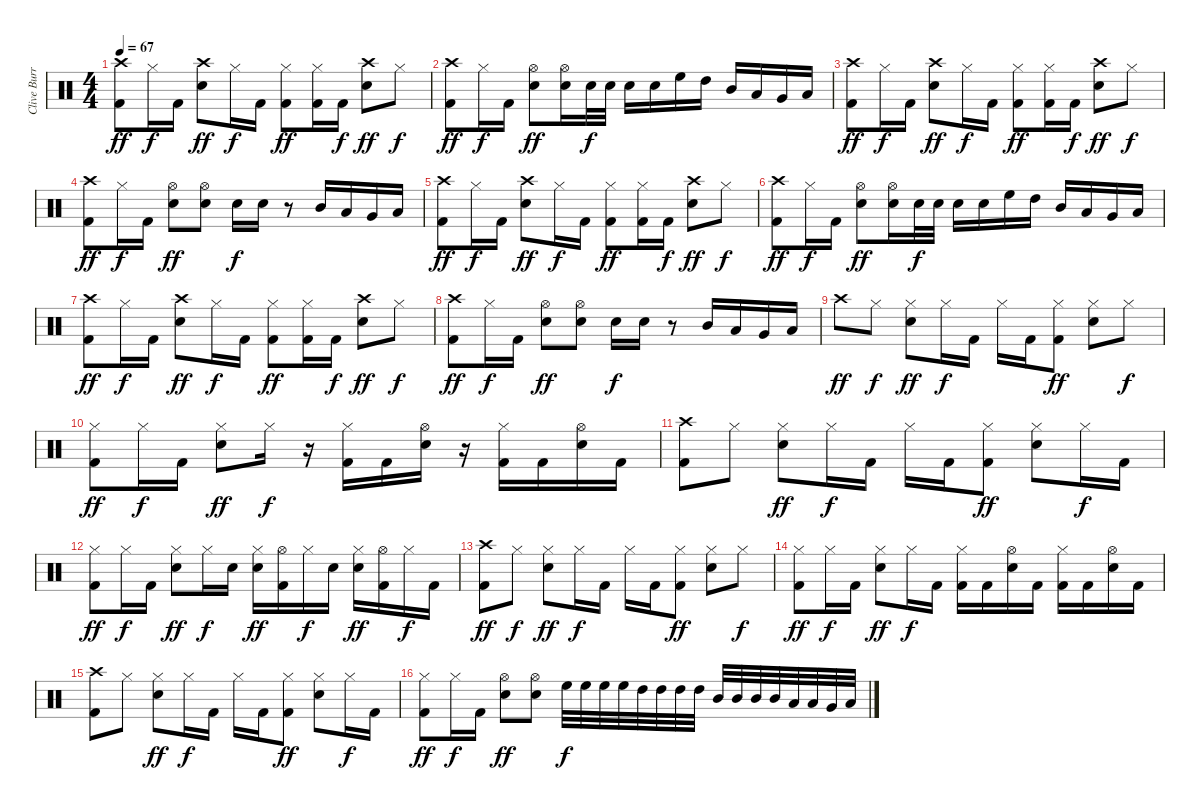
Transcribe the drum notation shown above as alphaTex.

\track ("Clive Burr - Drums" "Clive Burr") {instrument percussion}
\staff {score}
\articulation defaults
\ts (4 4)
\tempo 67
\clef neutral
\ks c
("Crash high (hit)" "Kick (hit) 2").8{dy ff} "Hi-Hat (closed)".16{dy f} "Kick (hit) 2".16 ("Crash high (hit)" "Snare (hit) 2").8{dy ff} "Hi-Hat (closed)".16{dy f} "Kick (hit) 2".16 ("Hi-Hat (closed)" "Kick (hit) 2").8{dy ff} ("Hi-Hat (closed)" "Kick (hit) 2").16 "Kick (hit) 2".16{dy f} ("Crash high (hit)" "Snare (hit) 2").8{dy ff} "Hi-Hat (closed)".8{dy f} |
("Crash high (hit)" "Kick (hit) 2").8{dy ff} "Hi-Hat (closed)".16{dy f} "Kick (hit) 2".16 ("Hi-Hat (open)" "Snare (hit) 2").8{dy ff} ("Hi-Hat (open)" "Snare (hit) 2").16 "Snare (hit) 2".32{dy f} "Snare (hit) 2".32 "Snare (hit) 2".16 "Snare (hit) 2".16 "High Floor Tom (hit)".16 "High Tom (hit)".16 "Mid Tom (hit)".16 "Low Tom (hit)".16 "Very Low Tom (hit)".16 "Low Floor Tom (hit)".16 |
("Crash high (hit)" "Kick (hit) 2").8{dy ff} "Hi-Hat (closed)".16{dy f} "Kick (hit) 2".16 ("Crash high (hit)" "Snare (hit) 2").8{dy ff} "Hi-Hat (closed)".16{dy f} "Kick (hit) 2".16 ("Hi-Hat (closed)" "Kick (hit) 2").8{dy ff} ("Hi-Hat (closed)" "Kick (hit) 2").16 "Kick (hit) 2".16{dy f} ("Crash high (hit)" "Snare (hit) 2").8{dy ff} "Hi-Hat (closed)".8{dy f} |
("Crash high (hit)" "Kick (hit) 2").8{dy ff} "Hi-Hat (closed)".16{dy f} "Kick (hit) 2".16 ("Hi-Hat (open)" "Snare (hit) 2").8{dy ff} ("Hi-Hat (open)" "Snare (hit) 2").8 "Snare (hit) 2".16{dy f} "Snare (hit) 2".16 r.8 "Mid Tom (hit)".16 "Low Tom (hit)".16 "Very Low Tom (hit)".16 "Low Floor Tom (hit)".16 |
("Crash high (hit)" "Kick (hit) 2").8{dy ff} "Hi-Hat (closed)".16{dy f} "Kick (hit) 2".16 ("Crash high (hit)" "Snare (hit) 2").8{dy ff} "Hi-Hat (closed)".16{dy f} "Kick (hit) 2".16 ("Hi-Hat (closed)" "Kick (hit) 2").8{dy ff} ("Hi-Hat (closed)" "Kick (hit) 2").16 "Kick (hit) 2".16{dy f} ("Crash high (hit)" "Snare (hit) 2").8{dy ff} "Hi-Hat (closed)".8{dy f} |
("Crash high (hit)" "Kick (hit) 2").8{dy ff} "Hi-Hat (closed)".16{dy f} "Kick (hit) 2".16 ("Hi-Hat (open)" "Snare (hit) 2").8{dy ff} ("Hi-Hat (open)" "Snare (hit) 2").16 "Snare (hit) 2".32{dy f} "Snare (hit) 2".32 "Snare (hit) 2".16 "Snare (hit) 2".16 "High Floor Tom (hit)".16 "High Tom (hit)".16 "Mid Tom (hit)".16 "Low Tom (hit)".16 "Very Low Tom (hit)".16 "Low Floor Tom (hit)".16 |
("Crash high (hit)" "Kick (hit) 2").8{dy ff} "Hi-Hat (closed)".16{dy f} "Kick (hit) 2".16 ("Crash high (hit)" "Snare (hit) 2").8{dy ff} "Hi-Hat (closed)".16{dy f} "Kick (hit) 2".16 ("Hi-Hat (closed)" "Kick (hit) 2").8{dy ff} ("Hi-Hat (closed)" "Kick (hit) 2").16 "Kick (hit) 2".16{dy f} ("Crash high (hit)" "Snare (hit) 2").8{dy ff} "Hi-Hat (closed)".8{dy f} |
("Crash high (hit)" "Kick (hit) 2").8{dy ff} "Hi-Hat (closed)".16{dy f} "Kick (hit) 2".16 ("Hi-Hat (open)" "Snare (hit) 2").8{dy ff} ("Hi-Hat (open)" "Snare (hit) 2").8 "Snare (hit) 2".16{dy f} "Snare (hit) 2".16 r.8 "Mid Tom (hit)".16 "Low Tom (hit)".16 "Very Low Tom (hit)".16 "Low Floor Tom (hit)".16 |
"Crash high (hit)".8{dy ff} "Hi-Hat (closed)".8{dy f} ("Hi-Hat (closed)" "Snare (hit) 2").8{dy ff} "Hi-Hat (closed)".16{dy f} "Kick (hit) 2".16 "Hi-Hat (closed)".16 "Kick (hit) 2".16 ("Hi-Hat (closed)" "Kick (hit) 2").8{dy ff} ("Hi-Hat (closed)" "Snare (hit) 2").8 "Hi-Hat (closed)".8{dy f} |
("Hi-Hat (closed)" "Kick (hit) 2").8{dy ff} "Hi-Hat (closed)".16{dy f} "Kick (hit) 2".16 ("Hi-Hat (closed)" "Snare (hit) 2").8{dy ff} "Hi-Hat (closed)".16{dy f} r.16 ("Hi-Hat (closed)" "Kick (hit) 2").16 "Kick (hit) 2".16 ("Hi-Hat (open)" "Snare (hit) 2").16 r.16 ("Hi-Hat (closed)" "Kick (hit) 2").16 "Kick (hit) 2".16 ("Hi-Hat (open)" "Snare (hit) 2").16 "Kick (hit) 2".16 |
("Crash high (hit)" "Kick (hit) 2").8 "Hi-Hat (closed)".8 ("Hi-Hat (closed)" "Snare (hit) 2").8{dy ff} "Hi-Hat (closed)".16{dy f} "Kick (hit) 2".16 "Hi-Hat (closed)".16 "Kick (hit) 2".16 ("Hi-Hat (closed)" "Kick (hit) 2").8{dy ff} ("Hi-Hat (closed)" "Snare (hit) 2").8 "Hi-Hat (closed)".16{dy f} "Kick (hit) 2".16 |
("Hi-Hat (closed)" "Kick (hit) 2").8{dy ff} "Hi-Hat (closed)".16{dy f} "Kick (hit) 2".16 ("Hi-Hat (closed)" "Snare (hit) 2").8{dy ff} "Hi-Hat (closed)".16{dy f} "Snare (hit) 2".16 ("Hi-Hat (closed)" "Snare (hit) 2").16{dy ff} ("Hi-Hat (open)" "Kick (hit) 2").16 "Hi-Hat (closed)".16{dy f} "Snare (hit) 2".16 ("Hi-Hat (closed)" "Snare (hit) 2").16{dy ff} ("Hi-Hat (open)" "Kick (hit) 2").16 "Hi-Hat (closed)".16{dy f} "Kick (hit) 2".16 |
("Crash high (hit)" "Kick (hit) 2").8{dy ff} "Hi-Hat (closed)".8{dy f} ("Hi-Hat (closed)" "Snare (hit) 2").8{dy ff} "Hi-Hat (closed)".16{dy f} "Kick (hit) 2".16 "Hi-Hat (closed)".16 "Kick (hit) 2".16 ("Hi-Hat (closed)" "Kick (hit) 2").8{dy ff} ("Hi-Hat (closed)" "Snare (hit) 2").8 "Hi-Hat (closed)".8{dy f} |
("Hi-Hat (closed)" "Kick (hit) 2").8{dy ff} "Hi-Hat (closed)".16{dy f} "Kick (hit) 2".16 ("Hi-Hat (closed)" "Snare (hit) 2").8{dy ff} "Hi-Hat (closed)".16{dy f} "Kick (hit) 2".16 ("Hi-Hat (closed)" "Kick (hit) 2").16 "Kick (hit) 2".16 ("Hi-Hat (open)" "Snare (hit) 2").16 "Kick (hit) 2".16 ("Hi-Hat (closed)" "Kick (hit) 2").16 "Kick (hit) 2".16 ("Hi-Hat (open)" "Snare (hit) 2").16 "Kick (hit) 2".16 |
("Crash high (hit)" "Kick (hit) 2").8 "Hi-Hat (closed)".8 ("Hi-Hat (closed)" "Snare (hit) 2").8{dy ff} "Hi-Hat (closed)".16{dy f} "Kick (hit) 2".16 "Hi-Hat (closed)".16 "Kick (hit) 2".16 ("Hi-Hat (closed)" "Kick (hit) 2").8{dy ff} ("Hi-Hat (closed)" "Snare (hit) 2").8 "Hi-Hat (closed)".16{dy f} "Kick (hit) 2".16 |
("Hi-Hat (closed)" "Kick (hit) 2").8{dy ff} "Hi-Hat (closed)".16{dy f} "Kick (hit) 2".16 ("Hi-Hat (open)" "Snare (hit) 2").8{dy ff} ("Hi-Hat (open)" "Snare (hit) 2").8 "High Floor Tom (hit)".32{dy f} "High Floor Tom (hit)".32 "High Floor Tom (hit)".32 "High Floor Tom (hit)".32 "High Tom (hit)".32 "High Tom (hit)".32 "High Tom (hit)".32 "High Tom (hit)".32 "Mid Tom (hit)".32 "Mid Tom (hit)".32 "Mid Tom (hit)".32 "Mid Tom (hit)".32 "Low Tom (hit)".32 "Low Tom (hit)".32 "Very Low Tom (hit)".32 "Low Floor Tom (hit)".32
